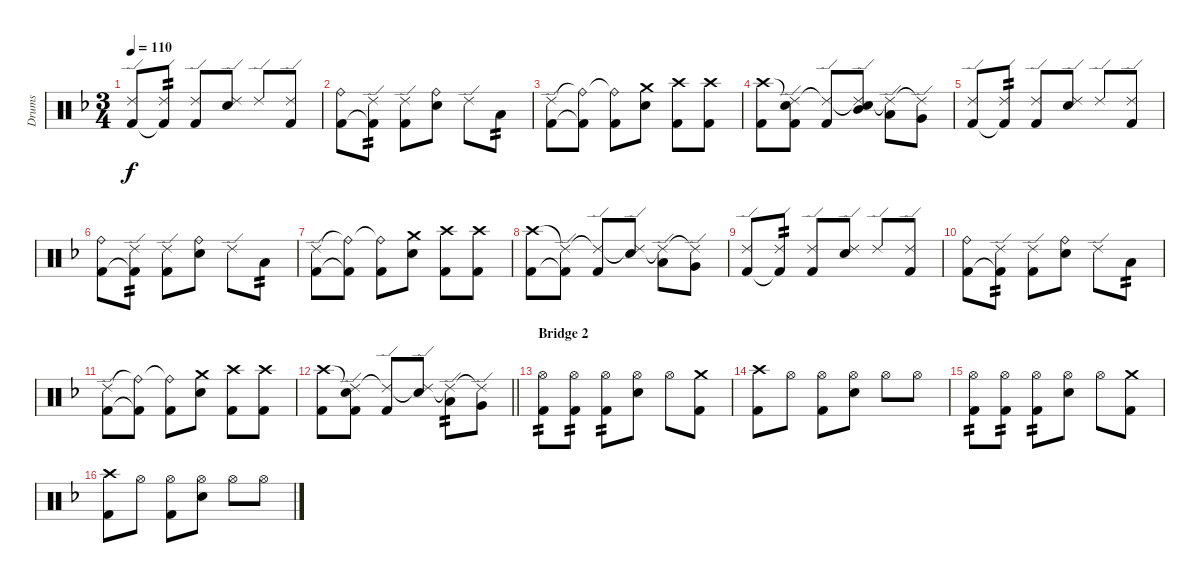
\track ("Drums" "Drums") {instrument percussion}
\staff {score}
\articulation defaults
\ts (3 4)
\tempo 110
\clef neutral
\ks dminor
("Ride (edge) 2" "Kick (hit) 2").8{dy f} ("Ride (edge) 2" "Kick (hit) 2"{t}).8{tp 2} ("Ride (edge) 2" "Kick (hit) 2").8 ("Ride (edge) 2" "Snare (hit) 2").8 "Ride (edge) 2".8 ("Ride (edge) 2" "Kick (hit) 2").8 |
("Ride (bell)" "Kick (hit) 2").8 ("Ride (edge) 2" "Kick (hit) 2"{t}).8{tp 2} ("Ride (edge) 2" "Kick (hit) 2").8 ("Ride (bell)" "Snare (hit) 2").8 "Ride (edge) 2".8 "Low Tom (hit)".8{tp 2} |
("Ride (edge) 2" "Kick (hit) 2").8 ("Ride (bell)"{t} "Kick (hit) 2"{t}).8 ("Ride (bell)"{t} "Kick (hit) 2").8 ("Crash medium (hit)" "Snare (hit) 2").8 ("Crash high (hit)" "Kick (hit) 2").8 ("Crash high (hit)" "Kick (hit) 2").8 |
("Crash high (hit)" "Kick (hit) 2").8 ("Ride (edge) 2"{t} "Snare (hit) 2" "Kick (hit) 2").8 ("Ride (edge) 2"{t} "Kick (hit) 2").8 ("Ride (edge) 2"{t} "Snare (hit) 2" "Mid Tom (hit)").8 ("Ride (edge) 2"{t} "Low Tom (hit)").8 ("Ride (edge) 2"{t} "Very Low Tom (hit)").8 |
("Ride (edge) 2" "Kick (hit) 2").8 ("Ride (edge) 2" "Kick (hit) 2"{t}).8{tp 2} ("Ride (edge) 2" "Kick (hit) 2").8 ("Ride (edge) 2" "Snare (hit) 2").8 "Ride (edge) 2".8 ("Ride (edge) 2" "Kick (hit) 2").8 |
("Ride (bell)" "Kick (hit) 2").8 ("Ride (edge) 2" "Kick (hit) 2"{t}).8{tp 2} ("Ride (edge) 2" "Kick (hit) 2").8 ("Ride (bell)" "Snare (hit) 2").8 "Ride (edge) 2".8 "Low Tom (hit)".8{tp 2} |
("Ride (edge) 2" "Kick (hit) 2").8 ("Ride (bell)"{t} "Kick (hit) 2"{t}).8 ("Ride (bell)"{t} "Kick (hit) 2").8 ("Crash medium (hit)" "Snare (hit) 2").8 ("Crash high (hit)" "Kick (hit) 2").8 ("Crash high (hit)" "Kick (hit) 2").8 |
("Crash high (hit)" "Kick (hit) 2").8 ("Ride (edge) 2"{t} "Kick (hit) 2"{t}).8 ("Ride (edge) 2"{t} "Kick (hit) 2").8 ("Ride (edge) 2"{t} "Snare (hit) 2").8 ("Ride (edge) 2"{t} "Low Tom (hit)").8 ("Ride (edge) 2"{t} "Very Low Tom (hit)").8 |
("Ride (edge) 2" "Kick (hit) 2").8 ("Ride (edge) 2" "Kick (hit) 2"{t}).8{tp 2} ("Ride (edge) 2" "Kick (hit) 2").8 ("Ride (edge) 2" "Snare (hit) 2").8 "Ride (edge) 2".8 ("Ride (edge) 2" "Kick (hit) 2").8 |
("Ride (bell)" "Kick (hit) 2").8 ("Ride (edge) 2" "Kick (hit) 2"{t}).8{tp 2} ("Ride (edge) 2" "Kick (hit) 2").8 ("Ride (bell)" "Snare (hit) 2").8 "Ride (edge) 2".8 "Low Tom (hit)".8{tp 2} |
("Ride (edge) 2" "Kick (hit) 2").8 ("Ride (bell)"{t} "Kick (hit) 2"{t}).8 ("Ride (bell)"{t} "Kick (hit) 2").8 ("Crash medium (hit)" "Snare (hit) 2").8 ("Crash high (hit)" "Kick (hit) 2").8 ("Crash high (hit)" "Kick (hit) 2").8 |
\barLineRight lightlight
("Crash high (hit)" "Kick (hit) 2").8 ("Ride (edge) 2"{t} "Snare (hit) 2" "Kick (hit) 2").8 ("Ride (edge) 2"{t} "Kick (hit) 2").8 ("Ride (edge) 2"{t} "Snare (hit) 2").8 ("Ride (edge) 2"{t} "Low Tom (hit)").8{tp 2} ("Ride (edge) 2"{t} "Very Low Tom (hit)").8 |
\section ("" "Bridge 2")
("Hi-Hat (open)" "Kick (hit) 2").8{tp 2} ("Hi-Hat (open)" "Kick (hit) 2").8{tp 2} ("Hi-Hat (open)" "Kick (hit) 2").8{tp 2} ("Hi-Hat (open)" "Snare (hit) 2").8 "Hi-Hat (open)".8 ("Crash medium (hit)" "Kick (hit) 2").8 |
("Crash high (hit)" "Kick (hit) 2").8 "Hi-Hat (open)".8 ("Hi-Hat (open)" "Kick (hit) 2").8 ("Hi-Hat (open)" "Snare (hit) 2").8 "Hi-Hat (open)".8 "Hi-Hat (open)".8 |
("Hi-Hat (open)" "Kick (hit) 2").8{tp 2} ("Hi-Hat (open)" "Kick (hit) 2").8{tp 2} ("Hi-Hat (open)" "Kick (hit) 2").8{tp 2} ("Hi-Hat (open)" "Snare (hit) 2").8 "Hi-Hat (open)".8 ("Crash medium (hit)" "Kick (hit) 2").8 |
("Crash high (hit)" "Kick (hit) 2").8 "Hi-Hat (open)".8 ("Hi-Hat (open)" "Kick (hit) 2").8 ("Hi-Hat (open)" "Snare (hit) 2").8 "Hi-Hat (open)".8 "Hi-Hat (open)".8
